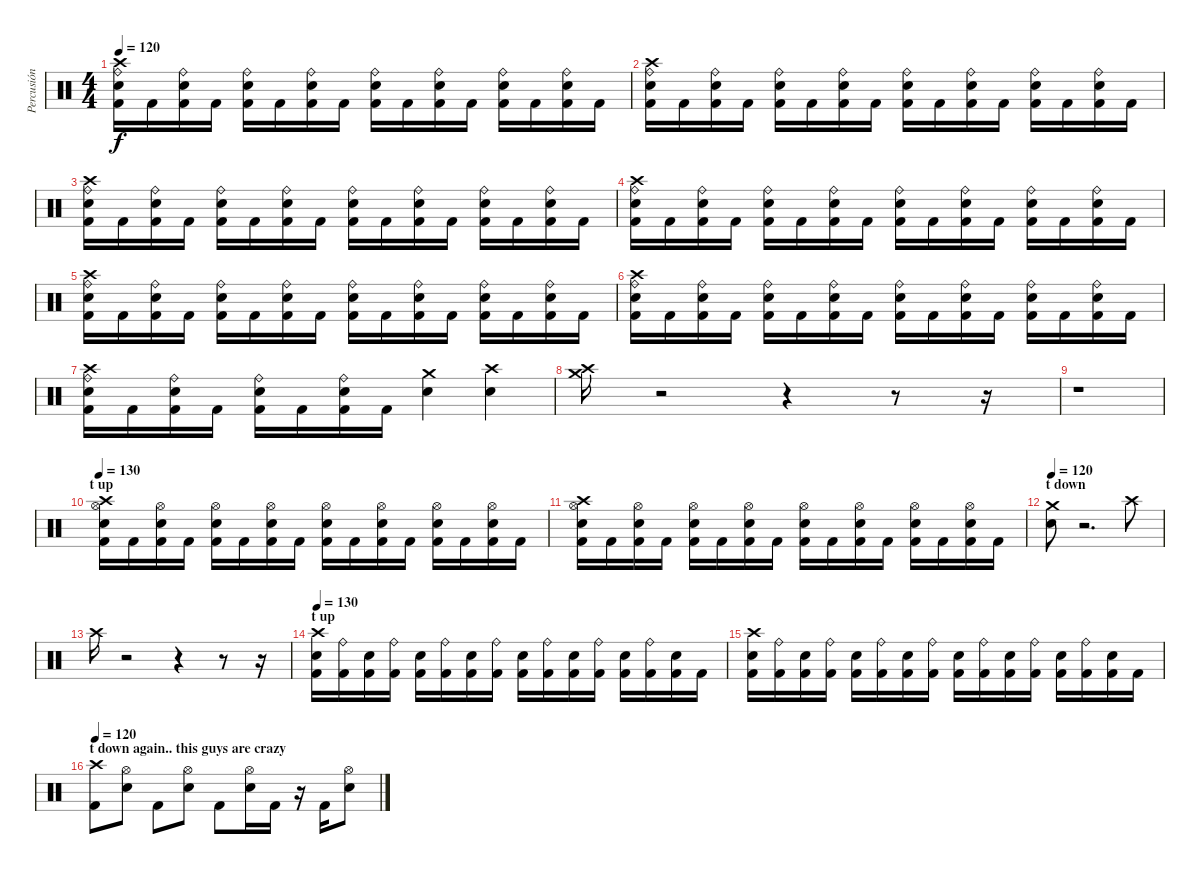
\track ("Percusión" "Percusión") {instrument percussion}
\staff {score}
\articulation defaults
\ts (4 4)
\tempo 120
\clef neutral
\ks c
("Crash high (hit)" "Ride (bell)" "Electric Snare (hit)" "Kick (hit) 2").16{dy f} "Kick (hit) 2".16 ("Ride (bell)" "Electric Snare (hit)" "Kick (hit) 2").16 "Kick (hit) 2".16 ("Ride (bell)" "Electric Snare (hit)" "Kick (hit) 2").16 "Kick (hit) 2".16 ("Ride (bell)" "Electric Snare (hit)" "Kick (hit) 2").16 "Kick (hit) 2".16 ("Ride (bell)" "Electric Snare (hit)" "Kick (hit) 2").16 "Kick (hit) 2".16 ("Ride (bell)" "Electric Snare (hit)" "Kick (hit) 2").16 "Kick (hit) 2".16 ("Ride (bell)" "Electric Snare (hit)" "Kick (hit) 2").16 "Kick (hit) 2".16 ("Ride (bell)" "Electric Snare (hit)" "Kick (hit) 2").16 "Kick (hit) 2".16 |
("Crash high (hit)" "Ride (bell)" "Electric Snare (hit)" "Kick (hit) 2").16 "Kick (hit) 2".16 ("Ride (bell)" "Electric Snare (hit)" "Kick (hit) 2").16 "Kick (hit) 2".16 ("Ride (bell)" "Electric Snare (hit)" "Kick (hit) 2").16 "Kick (hit) 2".16 ("Ride (bell)" "Electric Snare (hit)" "Kick (hit) 2").16 "Kick (hit) 2".16 ("Ride (bell)" "Electric Snare (hit)" "Kick (hit) 2").16 "Kick (hit) 2".16 ("Ride (bell)" "Electric Snare (hit)" "Kick (hit) 2").16 "Kick (hit) 2".16 ("Ride (bell)" "Electric Snare (hit)" "Kick (hit) 2").16 "Kick (hit) 2".16 ("Ride (bell)" "Electric Snare (hit)" "Kick (hit) 2").16 "Kick (hit) 2".16 |
("Crash high (hit)" "Ride (bell)" "Electric Snare (hit)" "Kick (hit) 2").16 "Kick (hit) 2".16 ("Ride (bell)" "Electric Snare (hit)" "Kick (hit) 2").16 "Kick (hit) 2".16 ("Ride (bell)" "Electric Snare (hit)" "Kick (hit) 2").16 "Kick (hit) 2".16 ("Ride (bell)" "Electric Snare (hit)" "Kick (hit) 2").16 "Kick (hit) 2".16 ("Ride (bell)" "Electric Snare (hit)" "Kick (hit) 2").16 "Kick (hit) 2".16 ("Ride (bell)" "Electric Snare (hit)" "Kick (hit) 2").16 "Kick (hit) 2".16 ("Ride (bell)" "Electric Snare (hit)" "Kick (hit) 2").16 "Kick (hit) 2".16 ("Ride (bell)" "Electric Snare (hit)" "Kick (hit) 2").16 "Kick (hit) 2".16 |
("Crash high (hit)" "Ride (bell)" "Electric Snare (hit)" "Kick (hit) 2").16 "Kick (hit) 2".16 ("Ride (bell)" "Electric Snare (hit)" "Kick (hit) 2").16 "Kick (hit) 2".16 ("Ride (bell)" "Electric Snare (hit)" "Kick (hit) 2").16 "Kick (hit) 2".16 ("Ride (bell)" "Electric Snare (hit)" "Kick (hit) 2").16 "Kick (hit) 2".16 ("Ride (bell)" "Electric Snare (hit)" "Kick (hit) 2").16 "Kick (hit) 2".16 ("Ride (bell)" "Electric Snare (hit)" "Kick (hit) 2").16 "Kick (hit) 2".16 ("Ride (bell)" "Electric Snare (hit)" "Kick (hit) 2").16 "Kick (hit) 2".16 ("Ride (bell)" "Electric Snare (hit)" "Kick (hit) 2").16 "Kick (hit) 2".16 |
("Crash high (hit)" "Ride (bell)" "Electric Snare (hit)" "Kick (hit) 2").16 "Kick (hit) 2".16 ("Ride (bell)" "Electric Snare (hit)" "Kick (hit) 2").16 "Kick (hit) 2".16 ("Ride (bell)" "Electric Snare (hit)" "Kick (hit) 2").16 "Kick (hit) 2".16 ("Ride (bell)" "Electric Snare (hit)" "Kick (hit) 2").16 "Kick (hit) 2".16 ("Ride (bell)" "Electric Snare (hit)" "Kick (hit) 2").16 "Kick (hit) 2".16 ("Ride (bell)" "Electric Snare (hit)" "Kick (hit) 2").16 "Kick (hit) 2".16 ("Ride (bell)" "Electric Snare (hit)" "Kick (hit) 2").16 "Kick (hit) 2".16 ("Ride (bell)" "Electric Snare (hit)" "Kick (hit) 2").16 "Kick (hit) 2".16 |
("Crash high (hit)" "Ride (bell)" "Electric Snare (hit)" "Kick (hit) 2").16 "Kick (hit) 2".16 ("Ride (bell)" "Electric Snare (hit)" "Kick (hit) 2").16 "Kick (hit) 2".16 ("Ride (bell)" "Electric Snare (hit)" "Kick (hit) 2").16 "Kick (hit) 2".16 ("Ride (bell)" "Electric Snare (hit)" "Kick (hit) 2").16 "Kick (hit) 2".16 ("Ride (bell)" "Electric Snare (hit)" "Kick (hit) 2").16 "Kick (hit) 2".16 ("Ride (bell)" "Electric Snare (hit)" "Kick (hit) 2").16 "Kick (hit) 2".16 ("Ride (bell)" "Electric Snare (hit)" "Kick (hit) 2").16 "Kick (hit) 2".16 ("Ride (bell)" "Electric Snare (hit)" "Kick (hit) 2").16 "Kick (hit) 2".16 |
("Crash high (hit)" "Ride (bell)" "Electric Snare (hit)" "Kick (hit) 2").16 "Kick (hit) 2".16 ("Ride (bell)" "Electric Snare (hit)" "Kick (hit) 2").16 "Kick (hit) 2".16 ("Ride (bell)" "Electric Snare (hit)" "Kick (hit) 2").16 "Kick (hit) 2".16 ("Ride (bell)" "Electric Snare (hit)" "Kick (hit) 2").16 "Kick (hit) 2".16 ("Crash medium (hit)" "Electric Snare (hit)").4 ("Crash high (hit)" "Electric Snare (hit)").4 |
("Crash high (hit)" "Crash medium (hit)").16 r.2 r.4 r.8 r.16 |
r.1 |
\section ("" "t up")
\tempo 130
("Crash high (hit)" "Hi-Hat (open)" "Electric Snare (hit)" "Kick (hit) 2").16 "Kick (hit) 2".16 ("Hi-Hat (open)" "Electric Snare (hit)" "Kick (hit) 2").16 "Kick (hit) 2".16 ("Hi-Hat (open)" "Electric Snare (hit)" "Kick (hit) 2").16 "Kick (hit) 2".16 ("Hi-Hat (open)" "Electric Snare (hit)" "Kick (hit) 2").16 "Kick (hit) 2".16 ("Hi-Hat (open)" "Electric Snare (hit)" "Kick (hit) 2").16 "Kick (hit) 2".16 ("Hi-Hat (open)" "Electric Snare (hit)" "Kick (hit) 2").16 "Kick (hit) 2".16 ("Hi-Hat (open)" "Electric Snare (hit)" "Kick (hit) 2").16 "Kick (hit) 2".16 ("Hi-Hat (open)" "Electric Snare (hit)" "Kick (hit) 2").16 "Kick (hit) 2".16 |
("Crash high (hit)" "Hi-Hat (open)" "Electric Snare (hit)" "Kick (hit) 2").16 "Kick (hit) 2".16 ("Hi-Hat (open)" "Electric Snare (hit)" "Kick (hit) 2").16 "Kick (hit) 2".16 ("Hi-Hat (open)" "Electric Snare (hit)" "Kick (hit) 2").16 "Kick (hit) 2".16 ("Hi-Hat (open)" "Electric Snare (hit)" "Kick (hit) 2").16 "Kick (hit) 2".16 ("Hi-Hat (open)" "Electric Snare (hit)" "Kick (hit) 2").16 "Kick (hit) 2".16 ("Hi-Hat (open)" "Electric Snare (hit)" "Kick (hit) 2").16 "Kick (hit) 2".16 ("Hi-Hat (open)" "Electric Snare (hit)" "Kick (hit) 2").16 "Kick (hit) 2".16 ("Hi-Hat (open)" "Electric Snare (hit)" "Kick (hit) 2").16 "Kick (hit) 2".16 |
\section ("" "t down")
\tempo 120
("Crash medium (hit)" "Electric Snare (hit)").8 r.2{d} "Crash high (hit)".8 |
"Crash high (hit)".16 r.2 r.4 r.8 r.16 |
\section ("" "t up")
\tempo 130
("Crash high (hit)" "Electric Snare (hit)" "Kick (hit) 2").16 ("Ride (bell)" "Kick (hit) 2").16 ("Electric Snare (hit)" "Kick (hit) 2").16 ("Ride (bell)" "Kick (hit) 2").16 ("Electric Snare (hit)" "Kick (hit) 2").16 ("Ride (bell)" "Kick (hit) 2").16 ("Electric Snare (hit)" "Kick (hit) 2").16 ("Ride (bell)" "Kick (hit) 2").16 ("Electric Snare (hit)" "Kick (hit) 2").16 ("Ride (bell)" "Kick (hit) 2").16 ("Electric Snare (hit)" "Kick (hit) 2").16 ("Ride (bell)" "Kick (hit) 2").16 ("Electric Snare (hit)" "Kick (hit) 2").16 ("Ride (bell)" "Kick (hit) 2").16 ("Electric Snare (hit)" "Kick (hit) 2").16 "Kick (hit) 2".16 |
("Crash high (hit)" "Electric Snare (hit)" "Kick (hit) 2").16 ("Ride (bell)" "Kick (hit) 2").16 ("Electric Snare (hit)" "Kick (hit) 2").16 ("Ride (bell)" "Kick (hit) 2").16 ("Electric Snare (hit)" "Kick (hit) 2").16 ("Ride (bell)" "Kick (hit) 2").16 ("Electric Snare (hit)" "Kick (hit) 2").16 ("Ride (bell)" "Kick (hit) 2").16 ("Electric Snare (hit)" "Kick (hit) 2").16 ("Ride (bell)" "Kick (hit) 2").16 ("Electric Snare (hit)" "Kick (hit) 2").16 ("Ride (bell)" "Kick (hit) 2").16 ("Electric Snare (hit)" "Kick (hit) 2").16 ("Ride (bell)" "Kick (hit) 2").16 ("Electric Snare (hit)" "Kick (hit) 2").16 "Kick (hit) 2".16 |
\section ("" "t down again.. this guys are crazy")
\tempo 120
("Crash high (hit)" "Kick (hit) 2").8 ("Hi-Hat (open)" "Electric Snare (hit)").8 "Kick (hit) 2".8 ("Hi-Hat (open)" "Electric Snare (hit)").8 "Kick (hit) 2".8 ("Hi-Hat (open)" "Electric Snare (hit)").16 "Kick (hit) 2".16 r.16 "Kick (hit) 2".16 ("Hi-Hat (open)" "Electric Snare (hit)").8
